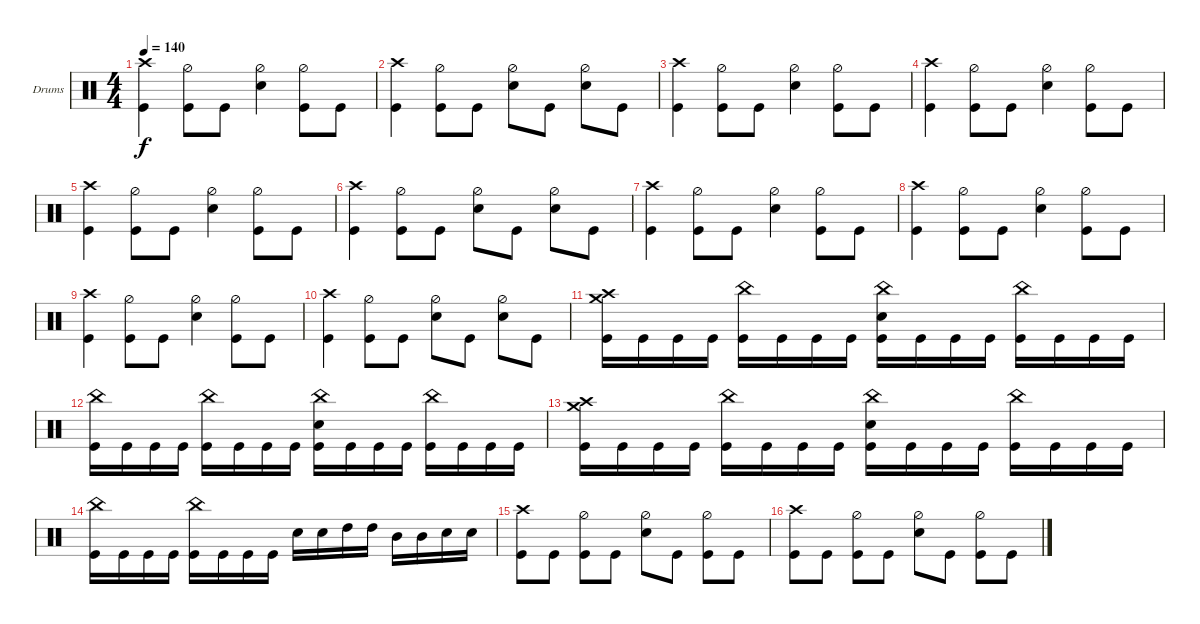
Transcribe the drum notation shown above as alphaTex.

\defaultSystemsLayout 4
\bracketExtendMode groupsimilarinstruments
\firstSystemTrackNameOrientation horizontal
\otherSystemsTrackNameOrientation horizontal
\track ("Drumkit" "Drums") {instrument percussion}
\staff {score}
\articulation defaults
\ts (4 4)
\tempo 140
\clef neutral
\ks c
("Kick (hit)" "Crash high (hit)").4{dy f} ("Kick (hit)" "Hi-Hat (half)").8 "Kick (hit)".8 ("Snare (hit) 2" "Hi-Hat (half)").4 ("Kick (hit)" "Hi-Hat (half)").8 "Kick (hit)".8 |
("Kick (hit)" "Crash high (hit)").4 ("Kick (hit)" "Hi-Hat (half)").8 "Kick (hit)".8 ("Snare (hit) 2" "Hi-Hat (half)").8 "Kick (hit)".8 ("Snare (hit) 2" "Hi-Hat (half)").8 "Kick (hit)".8 |
("Kick (hit)" "Crash high (hit)").4 ("Kick (hit)" "Hi-Hat (half)").8 "Kick (hit)".8 ("Snare (hit) 2" "Hi-Hat (half)").4 ("Kick (hit)" "Hi-Hat (half)").8 "Kick (hit)".8 |
("Kick (hit)" "Crash high (hit)").4 ("Kick (hit)" "Hi-Hat (half)").8 "Kick (hit)".8 ("Snare (hit) 2" "Hi-Hat (half)").4 ("Kick (hit)" "Hi-Hat (half)").8 "Kick (hit)".8 |
("Kick (hit)" "Crash high (hit)").4 ("Kick (hit)" "Hi-Hat (half)").8 "Kick (hit)".8 ("Snare (hit) 2" "Hi-Hat (half)").4 ("Kick (hit)" "Hi-Hat (half)").8 "Kick (hit)".8 |
("Kick (hit)" "Crash high (hit)").4 ("Kick (hit)" "Hi-Hat (half)").8 "Kick (hit)".8 ("Snare (hit) 2" "Hi-Hat (half)").8 "Kick (hit)".8 ("Snare (hit) 2" "Hi-Hat (half)").8 "Kick (hit)".8 |
("Kick (hit)" "Crash high (hit)").4 ("Kick (hit)" "Hi-Hat (half)").8 "Kick (hit)".8 ("Snare (hit) 2" "Hi-Hat (half)").4 ("Kick (hit)" "Hi-Hat (half)").8 "Kick (hit)".8 |
("Kick (hit)" "Crash high (hit)").4 ("Kick (hit)" "Hi-Hat (half)").8 "Kick (hit)".8 ("Snare (hit) 2" "Hi-Hat (half)").4 ("Kick (hit)" "Hi-Hat (half)").8 "Kick (hit)".8 |
("Kick (hit)" "Crash high (hit)").4 ("Kick (hit)" "Hi-Hat (half)").8 "Kick (hit)".8 ("Snare (hit) 2" "Hi-Hat (half)").4 ("Kick (hit)" "Hi-Hat (half)").8 "Kick (hit)".8 |
("Kick (hit)" "Crash high (hit)").4 ("Kick (hit)" "Hi-Hat (half)").8 "Kick (hit)".8 ("Snare (hit) 2" "Hi-Hat (half)").8 "Kick (hit)".8 ("Snare (hit) 2" "Hi-Hat (half)").8 "Kick (hit)".8 |
("Kick (hit)" "Crash high (hit)" "Crash medium (hit)").16 "Kick (hit)".16 "Kick (hit)".16 "Kick (hit)".16 ("Kick (hit)" "China (hit)").16 "Kick (hit)".16 "Kick (hit)".16 "Kick (hit)".16 ("Kick (hit)" "Snare (hit) 2" "China (hit)").16 "Kick (hit)".16 "Kick (hit)".16 "Kick (hit)".16 ("Kick (hit)" "China (hit)").16 "Kick (hit)".16 "Kick (hit)".16 "Kick (hit)".16 |
("Kick (hit)" "China (hit)").16 "Kick (hit)".16 "Kick (hit)".16 "Kick (hit)".16 ("Kick (hit)" "China (hit)").16 "Kick (hit)".16 "Kick (hit)".16 "Kick (hit)".16 ("Kick (hit)" "Snare (hit) 2" "China (hit)").16 "Kick (hit)".16 "Kick (hit)".16 "Kick (hit)".16 ("Kick (hit)" "China (hit)").16 "Kick (hit)".16 "Kick (hit)".16 "Kick (hit)".16 |
("Kick (hit)" "Crash high (hit)" "Crash medium (hit)").16 "Kick (hit)".16 "Kick (hit)".16 "Kick (hit)".16 ("Kick (hit)" "China (hit)").16 "Kick (hit)".16 "Kick (hit)".16 "Kick (hit)".16 ("Kick (hit)" "Snare (hit) 2" "China (hit)").16 "Kick (hit)".16 "Kick (hit)".16 "Kick (hit)".16 ("Kick (hit)" "China (hit)").16 "Kick (hit)".16 "Kick (hit)".16 "Kick (hit)".16 |
("Kick (hit)" "China (hit)").16 "Kick (hit)".16 "Kick (hit)".16 "Kick (hit)".16 ("Kick (hit)" "China (hit)").16 "Kick (hit)".16 "Kick (hit)".16 "Kick (hit)".16 "Snare (hit) 2".16 "Snare (hit) 2".16 "High Tom (hit)".16 "High Tom (hit)".16 "Mid Tom (hit)".16 "Mid Tom (hit)".16 "Snare (hit) 2".16 "Snare (hit) 2".16 |
("Kick (hit)" "Crash high (hit)").8 "Kick (hit)".8 ("Kick (hit)" "Hi-Hat (half)").8 "Kick (hit)".8 ("Snare (hit) 2" "Hi-Hat (half)").8 "Kick (hit)".8 ("Kick (hit)" "Hi-Hat (half)").8 "Kick (hit)".8 |
("Kick (hit)" "Crash high (hit)").8 "Kick (hit)".8 ("Kick (hit)" "Hi-Hat (half)").8 "Kick (hit)".8 ("Snare (hit) 2" "Hi-Hat (half)").8 "Kick (hit)".8 ("Kick (hit)" "Hi-Hat (half)").8 "Kick (hit)".8
